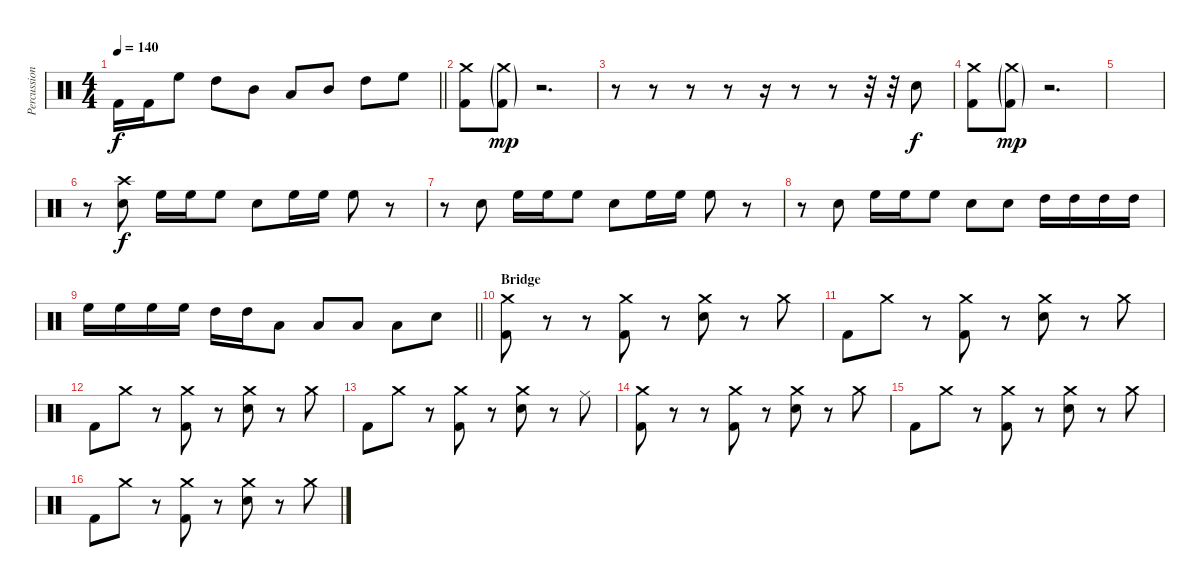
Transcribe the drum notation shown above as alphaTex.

\track ("Percussion" "Percussion") {instrument percussion}
\staff {score}
\articulation defaults
\ts (4 4)
\tempo 140
\clef neutral
\barLineRight lightlight
\ks c "Kick (hit) 2".16{dy f} "Kick (hit) 2".16 "High Floor Tom (hit)".8 "High Tom (hit)".8 "Mid Tom (hit)".8 "Low Tom (hit)".8 "Mid Tom (hit)".8 "High Tom (hit)".8 "High Floor Tom (hit)".8
|
\section ("" "")
("Crash medium (hit)" "Kick (hit) 2").8 ("Crash medium (hit)"{g} "Kick (hit) 2"{g}).8{dy mp} r.2{d} |
r.8 r.8 r.8 r.8 r.16 r.8 r.8 r.32 r.32 "Electric Snare (hit)".8{dy f} |
("Crash medium (hit)" "Kick (hit) 2").8 ("Crash medium (hit)"{g} "Kick (hit) 2"{g}).8{dy mp} r.2{d} |
|
r.8 ("Crash high (hit)" "Electric Snare (hit)").8{dy f} "High Floor Tom (hit)".16 "High Floor Tom (hit)".16 "High Floor Tom (hit)".8 "Electric Snare (hit)".8 "High Floor Tom (hit)".16 "High Floor Tom (hit)".16 "High Floor Tom (hit)".8 r.8 |
r.8 "Electric Snare (hit)".8 "High Floor Tom (hit)".16 "High Floor Tom (hit)".16 "High Floor Tom (hit)".8 "Electric Snare (hit)".8 "High Floor Tom (hit)".16 "High Floor Tom (hit)".16 "High Floor Tom (hit)".8 r.8 |
r.8 "Electric Snare (hit)".8 "High Floor Tom (hit)".16 "High Floor Tom (hit)".16 "High Floor Tom (hit)".8 "Electric Snare (hit)".8 "Electric Snare (hit)".8 "High Tom (hit)".16 "High Tom (hit)".16 "High Tom (hit)".16 "High Tom (hit)".16 |
\barLineRight lightlight "High Floor Tom (hit)".16 "High Floor Tom (hit)".16 "High Floor Tom (hit)".16 "High Floor Tom (hit)".16 "High Tom (hit)".16 "High Tom (hit)".16 "Low Tom (hit)".8 "Low Tom (hit)".8 "Low Tom (hit)".8 "Low Tom (hit)".8 "Electric Snare (hit)".8
|
\section ("" "Bridge")
("Crash medium (hit)" "Kick (hit) 2").8{volume 16} r.8 r.8 ("Crash medium (hit)" "Kick (hit) 2").8 r.8 ("Crash medium (hit)" "Electric Snare (hit)").8 r.8 "Crash medium (hit)".8 |
"Kick (hit) 2".8 "Crash medium (hit)".8 r.8 ("Crash medium (hit)" "Kick (hit) 2").8 r.8 ("Crash medium (hit)" "Electric Snare (hit)").8 r.8 "Crash medium (hit)".8 |
"Kick (hit) 2".8 "Crash medium (hit)".8 r.8 ("Crash medium (hit)" "Kick (hit) 2").8 r.8 ("Crash medium (hit)" "Electric Snare (hit)").8 r.8 "Crash medium (hit)".8 |
"Kick (hit) 2".8 "Crash medium (hit)".8 r.8 ("Crash medium (hit)" "Kick (hit) 2").8 r.8 ("Crash medium (hit)" "Electric Snare (hit)").8 r.8 "Ride (middle)".8 |
("Crash medium (hit)" "Kick (hit) 2").8 r.8 r.8 ("Crash medium (hit)" "Kick (hit) 2").8 r.8 ("Crash medium (hit)" "Electric Snare (hit)").8 r.8 "Crash medium (hit)".8 |
"Kick (hit) 2".8 "Crash medium (hit)".8 r.8 ("Crash medium (hit)" "Kick (hit) 2").8 r.8 ("Crash medium (hit)" "Electric Snare (hit)").8 r.8 "Crash medium (hit)".8 |
"Kick (hit) 2".8 "Crash medium (hit)".8 r.8 ("Crash medium (hit)" "Kick (hit) 2").8 r.8 ("Crash medium (hit)" "Electric Snare (hit)").8 r.8 "Crash medium (hit)".8
